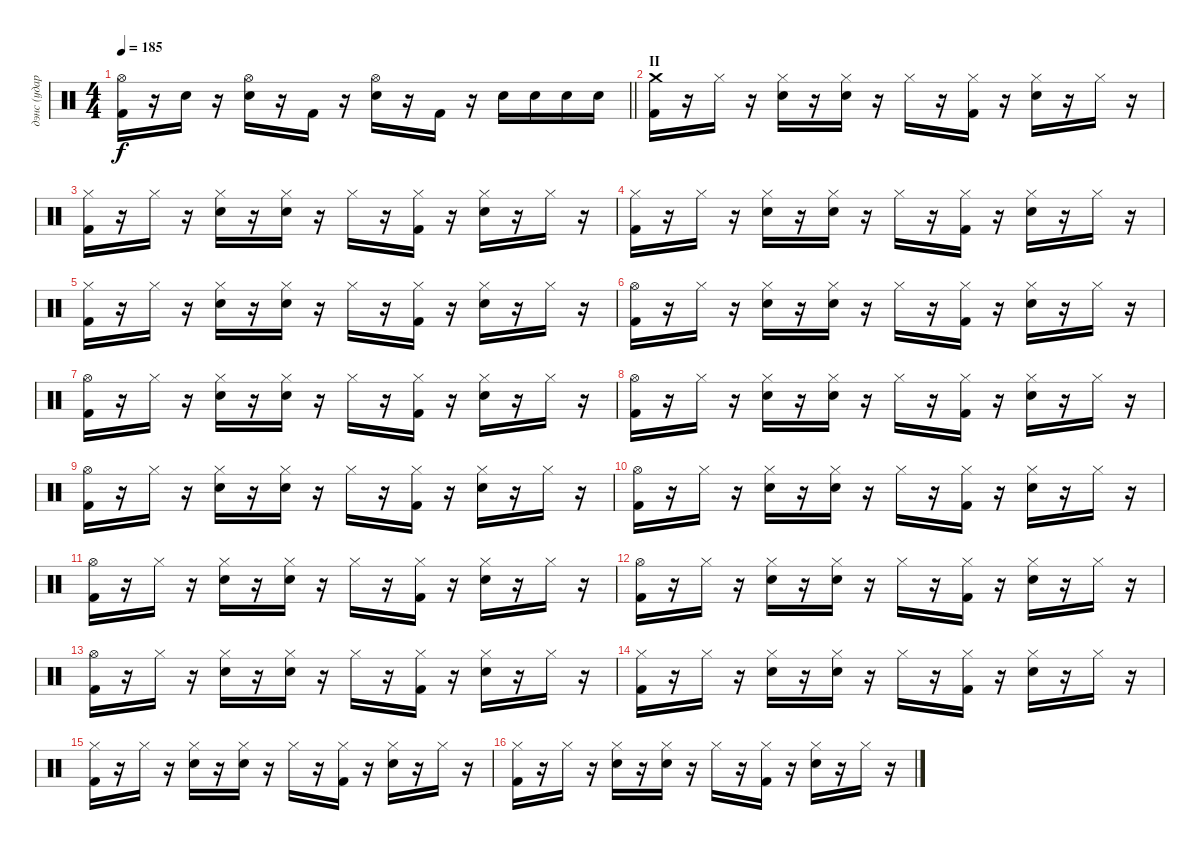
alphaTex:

\track ("дэнс (ударные)" "дэнс (удар") {instrument percussion}
\staff {score}
\articulation defaults
\ts (4 4)
\tempo 185
\clef neutral
\barLineRight lightlight
\ks c
("Kick (hit) 2" "Hi-Hat (open)").16{dy f} r.16 "Snare (hit) 2".16 r.16 ("Snare (hit) 2" "Hi-Hat (open)").16 r.16 "Kick (hit) 2".16 r.16 ("Snare (hit) 2" "Hi-Hat (open)").16 r.16 "Kick (hit) 2".16 r.16 "Snare (hit) 2".16 "Snare (hit) 2".16 "Snare (hit) 2".16 "Snare (hit) 2".16 |
\section ("" "II")
("Kick (hit) 2" "Crash medium (hit)").16 r.16 "Hi-Hat (closed)".16 r.16 ("Snare (hit) 2" "Hi-Hat (closed)").16 r.16 ("Snare (hit) 2" "Hi-Hat (closed)").16 r.16 "Hi-Hat (closed)".16 r.16 ("Kick (hit) 2" "Hi-Hat (closed)").16 r.16 ("Snare (hit) 2" "Hi-Hat (closed)").16 r.16 "Hi-Hat (closed)".16 r.16 |
("Kick (hit) 2" "Hi-Hat (closed)").16 r.16 "Hi-Hat (closed)".16 r.16 ("Snare (hit) 2" "Hi-Hat (closed)").16 r.16 ("Snare (hit) 2" "Hi-Hat (closed)").16 r.16 "Hi-Hat (closed)".16 r.16 ("Kick (hit) 2" "Hi-Hat (closed)").16 r.16 ("Snare (hit) 2" "Hi-Hat (closed)").16 r.16 "Hi-Hat (closed)".16 r.16 |
("Kick (hit) 2" "Hi-Hat (closed)").16 r.16 "Hi-Hat (closed)".16 r.16 ("Snare (hit) 2" "Hi-Hat (closed)").16 r.16 ("Snare (hit) 2" "Hi-Hat (closed)").16 r.16 "Hi-Hat (closed)".16 r.16 ("Kick (hit) 2" "Hi-Hat (closed)").16 r.16 ("Snare (hit) 2" "Hi-Hat (closed)").16 r.16 "Hi-Hat (closed)".16 r.16 |
("Kick (hit) 2" "Hi-Hat (closed)").16 r.16 "Hi-Hat (closed)".16 r.16 ("Snare (hit) 2" "Hi-Hat (closed)").16 r.16 ("Snare (hit) 2" "Hi-Hat (closed)").16 r.16 "Hi-Hat (closed)".16 r.16 ("Kick (hit) 2" "Hi-Hat (closed)").16 r.16 ("Snare (hit) 2" "Hi-Hat (closed)").16 r.16 "Hi-Hat (closed)".16 r.16 |
("Kick (hit) 2" "Hi-Hat (open)").16 r.16 "Hi-Hat (closed)".16 r.16 ("Snare (hit) 2" "Hi-Hat (closed)").16 r.16 ("Snare (hit) 2" "Hi-Hat (closed)").16 r.16 "Hi-Hat (closed)".16 r.16 ("Kick (hit) 2" "Hi-Hat (closed)").16 r.16 ("Snare (hit) 2" "Hi-Hat (closed)").16 r.16 "Hi-Hat (closed)".16 r.16 |
("Kick (hit) 2" "Hi-Hat (open)").16 r.16 "Hi-Hat (closed)".16 r.16 ("Snare (hit) 2" "Hi-Hat (closed)").16 r.16 ("Snare (hit) 2" "Hi-Hat (closed)").16 r.16 "Hi-Hat (closed)".16 r.16 ("Kick (hit) 2" "Hi-Hat (closed)").16 r.16 ("Snare (hit) 2" "Hi-Hat (closed)").16 r.16 "Hi-Hat (closed)".16 r.16 |
("Kick (hit) 2" "Hi-Hat (open)").16 r.16 "Hi-Hat (closed)".16 r.16 ("Snare (hit) 2" "Hi-Hat (closed)").16 r.16 ("Snare (hit) 2" "Hi-Hat (closed)").16 r.16 "Hi-Hat (closed)".16 r.16 ("Kick (hit) 2" "Hi-Hat (closed)").16 r.16 ("Snare (hit) 2" "Hi-Hat (closed)").16 r.16 "Hi-Hat (closed)".16 r.16 |
("Kick (hit) 2" "Hi-Hat (open)").16 r.16 "Hi-Hat (closed)".16 r.16 ("Snare (hit) 2" "Hi-Hat (closed)").16 r.16 ("Snare (hit) 2" "Hi-Hat (closed)").16 r.16 "Hi-Hat (closed)".16 r.16 ("Kick (hit) 2" "Hi-Hat (closed)").16 r.16 ("Snare (hit) 2" "Hi-Hat (closed)").16 r.16 "Hi-Hat (closed)".16 r.16 |
("Kick (hit) 2" "Hi-Hat (open)").16 r.16 "Hi-Hat (closed)".16 r.16 ("Snare (hit) 2" "Hi-Hat (closed)").16 r.16 ("Snare (hit) 2" "Hi-Hat (closed)").16 r.16 "Hi-Hat (closed)".16 r.16 ("Kick (hit) 2" "Hi-Hat (closed)").16 r.16 ("Snare (hit) 2" "Hi-Hat (closed)").16 r.16 "Hi-Hat (closed)".16 r.16 |
("Kick (hit) 2" "Hi-Hat (open)").16 r.16 "Hi-Hat (closed)".16 r.16 ("Snare (hit) 2" "Hi-Hat (closed)").16 r.16 ("Snare (hit) 2" "Hi-Hat (closed)").16 r.16 "Hi-Hat (closed)".16 r.16 ("Kick (hit) 2" "Hi-Hat (closed)").16 r.16 ("Snare (hit) 2" "Hi-Hat (closed)").16 r.16 "Hi-Hat (closed)".16 r.16 |
("Kick (hit) 2" "Hi-Hat (open)").16 r.16 "Hi-Hat (closed)".16 r.16 ("Snare (hit) 2" "Hi-Hat (closed)").16 r.16 ("Snare (hit) 2" "Hi-Hat (closed)").16 r.16 "Hi-Hat (closed)".16 r.16 ("Kick (hit) 2" "Hi-Hat (closed)").16 r.16 ("Snare (hit) 2" "Hi-Hat (closed)").16 r.16 "Hi-Hat (closed)".16 r.16 |
("Kick (hit) 2" "Hi-Hat (open)").16 r.16 "Hi-Hat (closed)".16 r.16 ("Snare (hit) 2" "Hi-Hat (closed)").16 r.16 ("Snare (hit) 2" "Hi-Hat (closed)").16 r.16 "Hi-Hat (closed)".16 r.16 ("Kick (hit) 2" "Hi-Hat (closed)").16 r.16 ("Snare (hit) 2" "Hi-Hat (closed)").16 r.16 "Hi-Hat (closed)".16 r.16 |
("Kick (hit) 2" "Hi-Hat (closed)").16 r.16 "Hi-Hat (closed)".16 r.16 ("Snare (hit) 2" "Hi-Hat (closed)").16 r.16 ("Snare (hit) 2" "Hi-Hat (closed)").16 r.16 "Hi-Hat (closed)".16 r.16 ("Kick (hit) 2" "Hi-Hat (closed)").16 r.16 ("Snare (hit) 2" "Hi-Hat (closed)").16 r.16 "Hi-Hat (closed)".16 r.16 |
("Kick (hit) 2" "Hi-Hat (closed)").16 r.16 "Hi-Hat (closed)".16 r.16 ("Snare (hit) 2" "Hi-Hat (closed)").16 r.16 ("Snare (hit) 2" "Hi-Hat (closed)").16 r.16 "Hi-Hat (closed)".16 r.16 ("Kick (hit) 2" "Hi-Hat (closed)").16 r.16 ("Snare (hit) 2" "Hi-Hat (closed)").16 r.16 "Hi-Hat (closed)".16 r.16 |
("Kick (hit) 2" "Hi-Hat (closed)").16 r.16 "Hi-Hat (closed)".16 r.16 ("Snare (hit) 2" "Hi-Hat (closed)").16 r.16 ("Snare (hit) 2" "Hi-Hat (closed)").16 r.16 "Hi-Hat (closed)".16 r.16 ("Kick (hit) 2" "Hi-Hat (closed)").16 r.16 ("Snare (hit) 2" "Hi-Hat (closed)").16 r.16 "Hi-Hat (closed)".16 r.16
